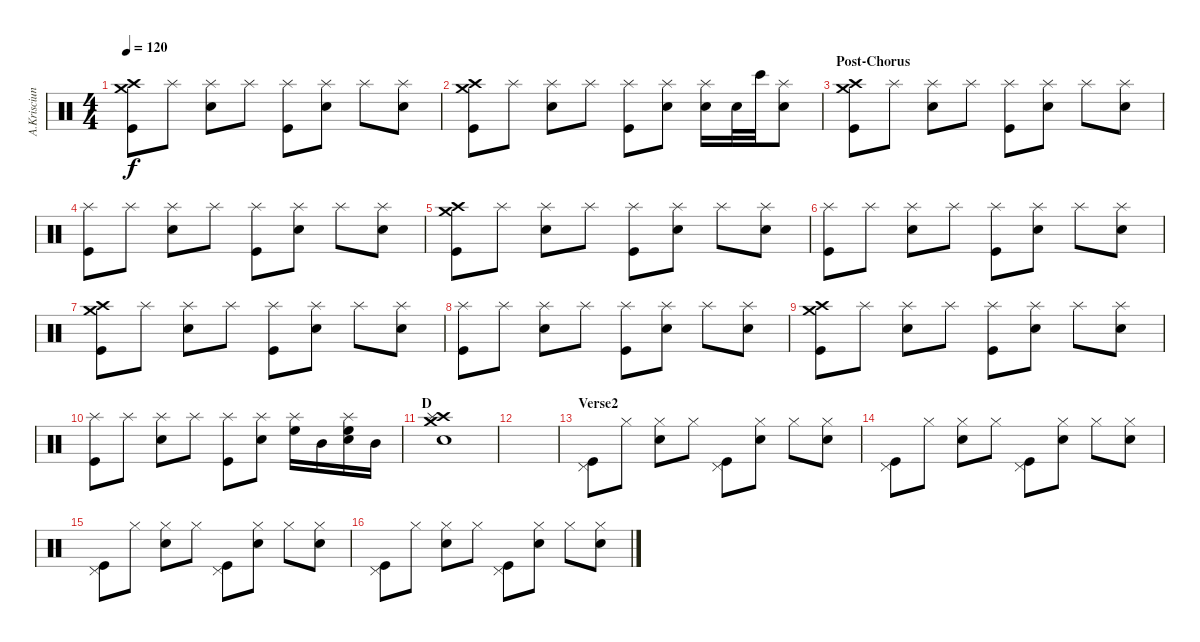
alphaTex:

\track ("A.Krisciunas" "A.Krisciun") {instrument percussion}
\staff {score}
\articulation defaults
\ts (4 4)
\tempo 120
\clef neutral
\ks c
("Crash medium (hit)" "Crash high (hit)" "Kick (hit)").8{dy f} "Splash (hit)".8 ("Splash (hit)" "Electric Snare (hit)").8 "Splash (hit)".8 ("Splash (hit)" "Kick (hit)").8 ("Splash (hit)" "Electric Snare (hit)").8 "Splash (hit)".8 ("Splash (hit)" "Electric Snare (hit)").8 |
("Crash medium (hit)" "Crash high (hit)" "Kick (hit)").8 "Splash (hit)".8 ("Splash (hit)" "Electric Snare (hit)").8 "Splash (hit)".8 ("Splash (hit)" "Kick (hit)").8 ("Splash (hit)" "Electric Snare (hit)").8 ("Splash (hit)" "Electric Snare (hit)").16 "Electric Snare (hit)".32 "Bongo High (hit)".32 ("Splash (hit)" "Electric Snare (hit)").8 |
\section ("" "Post-Chorus")
("Crash medium (hit)" "Crash high (hit)" "Kick (hit)").8 "Splash (hit)".8 ("Splash (hit)" "Electric Snare (hit)").8 "Splash (hit)".8 ("Splash (hit)" "Kick (hit)").8 ("Splash (hit)" "Electric Snare (hit)").8 "Splash (hit)".8 ("Splash (hit)" "Electric Snare (hit)").8 |
("Splash (hit)" "Kick (hit)").8 "Splash (hit)".8 ("Splash (hit)" "Electric Snare (hit)").8 "Splash (hit)".8 ("Splash (hit)" "Kick (hit)").8 ("Splash (hit)" "Electric Snare (hit)").8 "Splash (hit)".8 ("Splash (hit)" "Electric Snare (hit)").8 |
("Crash medium (hit)" "Crash high (hit)" "Kick (hit)").8 "Splash (hit)".8 ("Splash (hit)" "Electric Snare (hit)").8 "Splash (hit)".8 ("Splash (hit)" "Kick (hit)").8 ("Splash (hit)" "Electric Snare (hit)").8 "Splash (hit)".8 ("Splash (hit)" "Electric Snare (hit)").8 |
("Splash (hit)" "Kick (hit)").8 "Splash (hit)".8 ("Splash (hit)" "Electric Snare (hit)").8 "Splash (hit)".8 ("Splash (hit)" "Kick (hit)").8 ("Splash (hit)" "Electric Snare (hit)").8 "Splash (hit)".8 ("Splash (hit)" "Electric Snare (hit)").8 |
("Crash medium (hit)" "Crash high (hit)" "Kick (hit)").8 "Splash (hit)".8 ("Splash (hit)" "Electric Snare (hit)").8 "Splash (hit)".8 ("Splash (hit)" "Kick (hit)").8 ("Splash (hit)" "Electric Snare (hit)").8 "Splash (hit)".8 ("Splash (hit)" "Electric Snare (hit)").8 |
("Splash (hit)" "Kick (hit)").8 "Splash (hit)".8 ("Splash (hit)" "Electric Snare (hit)").8 "Splash (hit)".8 ("Splash (hit)" "Kick (hit)").8 ("Splash (hit)" "Electric Snare (hit)").8 "Splash (hit)".8 ("Splash (hit)" "Electric Snare (hit)").8 |
("Crash medium (hit)" "Crash high (hit)" "Kick (hit)").8 "Splash (hit)".8 ("Splash (hit)" "Electric Snare (hit)").8 "Splash (hit)".8 ("Splash (hit)" "Kick (hit)").8 ("Splash (hit)" "Electric Snare (hit)").8 "Splash (hit)".8 ("Splash (hit)" "Electric Snare (hit)").8 |
("Splash (hit)" "Kick (hit)").8 "Splash (hit)".8 ("Splash (hit)" "Electric Snare (hit)").8 "Splash (hit)".8 ("Splash (hit)" "Kick (hit)").8 ("Splash (hit)" "Electric Snare (hit)").8 ("High Floor Tom (hit)" "Splash (hit)").16 "Mid Tom (hit)".16 ("High Floor Tom (hit)" "Splash (hit)" "Electric Snare (hit)").16 "Mid Tom (hit)".16 |
\section ("" "D")
("Crash medium (hit)" "Crash high (hit)" "Splash (hit)" "Electric Snare (hit)").1 |
|
\section ("" "Verse2")
("Pedal Hi-Hat (hit)" "Kick (hit)").8 "Hi-Hat (closed)".8 ("Hi-Hat (closed)" "Electric Snare (hit)").8 "Hi-Hat (closed)".8 ("Pedal Hi-Hat (hit)" "Kick (hit)").8 ("Hi-Hat (closed)" "Electric Snare (hit)").8 "Hi-Hat (closed)".8 ("Hi-Hat (closed)" "Electric Snare (hit)").8 |
("Pedal Hi-Hat (hit)" "Kick (hit)").8 "Hi-Hat (closed)".8 ("Hi-Hat (closed)" "Electric Snare (hit)").8 "Hi-Hat (closed)".8 ("Pedal Hi-Hat (hit)" "Kick (hit)").8 ("Hi-Hat (closed)" "Electric Snare (hit)").8 "Hi-Hat (closed)".8 ("Hi-Hat (closed)" "Electric Snare (hit)").8 |
("Pedal Hi-Hat (hit)" "Kick (hit)").8 "Hi-Hat (closed)".8 ("Hi-Hat (closed)" "Electric Snare (hit)").8 "Hi-Hat (closed)".8 ("Pedal Hi-Hat (hit)" "Kick (hit)").8 ("Hi-Hat (closed)" "Electric Snare (hit)").8 "Hi-Hat (closed)".8 ("Hi-Hat (closed)" "Electric Snare (hit)").8 |
("Pedal Hi-Hat (hit)" "Kick (hit)").8 "Hi-Hat (closed)".8 ("Hi-Hat (closed)" "Electric Snare (hit)").8 "Hi-Hat (closed)".8 ("Pedal Hi-Hat (hit)" "Kick (hit)").8 ("Hi-Hat (closed)" "Electric Snare (hit)").8 "Hi-Hat (closed)".8 ("Hi-Hat (closed)" "Electric Snare (hit)").8
